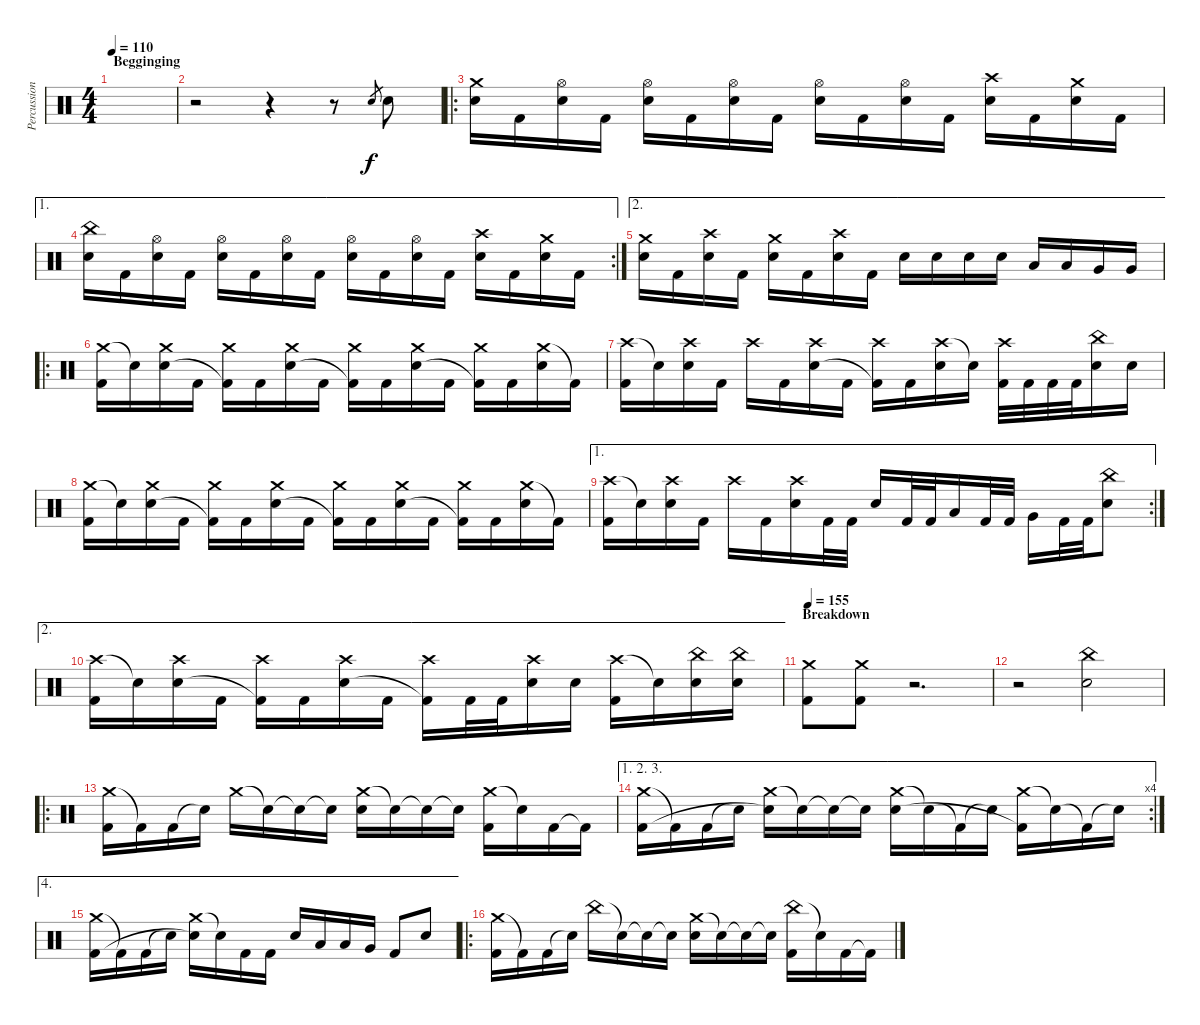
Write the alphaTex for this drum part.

\track ("Percussion" "Percussion") {instrument percussion}
\staff {score}
\articulation defaults
\ts (4 4)
\section ("" "Begginging")
\tempo 110
\clef neutral
\ks c
|
r.2 r.4 r.8 "Electric Snare (hit)".8{gr} "Electric Snare (hit)".8 |
\ro
("Crash medium (hit)" "Electric Snare (hit)").16 "Kick (hit) 2".16 ("Hi-Hat (open)" "Electric Snare (hit)").16 "Kick (hit) 2".16 ("Hi-Hat (open)" "Electric Snare (hit)").16 "Kick (hit) 2".16 ("Hi-Hat (open)" "Electric Snare (hit)").16 "Kick (hit) 2".16 ("Hi-Hat (open)" "Electric Snare (hit)").16 "Kick (hit) 2".16 ("Hi-Hat (open)" "Electric Snare (hit)").16 "Kick (hit) 2".16 ("Crash high (hit)" "Electric Snare (hit)").16 "Kick (hit) 2".16 ("Crash medium (hit)" "Electric Snare (hit)").16 "Kick (hit) 2".16 |
\ae 1
\rc 2
("China (hit)" "Electric Snare (hit)").16 "Kick (hit) 2".16 ("Hi-Hat (open)" "Electric Snare (hit)").16 "Kick (hit) 2".16 ("Hi-Hat (open)" "Electric Snare (hit)").16 "Kick (hit) 2".16 ("Hi-Hat (open)" "Electric Snare (hit)").16 "Kick (hit) 2".16 ("Hi-Hat (open)" "Electric Snare (hit)").16 "Kick (hit) 2".16 ("Hi-Hat (open)" "Electric Snare (hit)").16 "Kick (hit) 2".16 ("Crash high (hit)" "Electric Snare (hit)").16 "Kick (hit) 2".16 ("Crash medium (hit)" "Electric Snare (hit)").16 "Kick (hit) 2".16 |
\ae 2
("Crash medium (hit)" "Electric Snare (hit)").16 "Kick (hit) 2".16 ("Crash high (hit)" "Electric Snare (hit)").16 "Kick (hit) 2".16 ("Crash medium (hit)" "Electric Snare (hit)").16 "Kick (hit) 2".16 ("Crash high (hit)" "Electric Snare (hit)").16 "Kick (hit) 2".16 "Electric Snare (hit)".16 "Electric Snare (hit)".16 "Electric Snare (hit)".16 "Electric Snare (hit)".16 "Low Tom (hit)".16 "Low Tom (hit)".16 "Very Low Tom (hit)".16 "Very Low Tom (hit)".16 |
\ro
("Crash medium (hit)" "Kick (hit) 2").16 "Snare (hit)"{t}.16 ("Crash medium (hit)" "Electric Snare (hit)").16 "Kick (hit) 2".16 ("Crash medium (hit)" "Kick (hit) 2"{t}).16 "Kick (hit) 2".16 ("Crash medium (hit)" "Electric Snare (hit)").16 "Kick (hit) 2".16 ("Crash medium (hit)" "Kick (hit) 2"{t}).16 "Kick (hit) 2".16 ("Crash medium (hit)" "Electric Snare (hit)").16 "Kick (hit) 2".16 ("Crash medium (hit)" "Kick (hit) 2"{t}).16 "Kick (hit) 2".16 ("Crash medium (hit)" "Electric Snare (hit)").16 "Kick (hit) 2"{t}.16 |
("Crash high (hit)" "Kick (hit) 2").16 "Snare (hit)"{t}.16 ("Crash high (hit)" "Electric Snare (hit)").16 "Kick (hit) 2".16 "Crash high (hit)".16 "Kick (hit) 2".16 ("Crash high (hit)" "Electric Snare (hit)").16 "Kick (hit) 2".16 ("Crash high (hit)" "Kick (hit) 2"{t}).16 "Kick (hit) 2".16 ("Crash high (hit)" "Electric Snare (hit)").16 "Snare (hit)"{t}.16 ("Crash high (hit)" "Kick (hit) 2").32 "Kick (hit) 2".32 "Kick (hit) 2".32 "Kick (hit) 2".32 ("China (hit)" "Electric Snare (hit)").16 "Electric Snare (hit)".16 |
("Crash medium (hit)" "Kick (hit) 2").16 "Snare (hit)"{t}.16 ("Crash medium (hit)" "Electric Snare (hit)").16 "Kick (hit) 2".16 ("Crash medium (hit)" "Kick (hit) 2"{t}).16 "Kick (hit) 2".16 ("Crash medium (hit)" "Electric Snare (hit)").16 "Kick (hit) 2".16 ("Crash medium (hit)" "Kick (hit) 2"{t}).16 "Kick (hit) 2".16 ("Crash medium (hit)" "Electric Snare (hit)").16 "Kick (hit) 2".16 ("Crash medium (hit)" "Kick (hit) 2"{t}).16 "Kick (hit) 2".16 ("Crash medium (hit)" "Electric Snare (hit)").16 "Kick (hit) 2"{t}.16 |
\ae 1
\rc 2
("Crash high (hit)" "Kick (hit) 2").16 "Snare (hit)"{t}.16 ("Crash high (hit)" "Electric Snare (hit)").16 "Kick (hit) 2".16 "Crash high (hit)".16 "Kick (hit) 2".16 ("Crash high (hit)" "Electric Snare (hit)").16 "Kick (hit) 2".32 "Kick (hit) 2".32 "Electric Snare (hit)".16 "Kick (hit) 2".32 "Kick (hit) 2".32 "Low Tom (hit)".16 "Kick (hit) 2".32 "Kick (hit) 2".32 "Very Low Tom (hit)".16 "Kick (hit) 2".32 "Kick (hit) 2".32 ("China (hit)" "Electric Snare (hit)").8 |
\ae 2
("Crash high (hit)" "Kick (hit) 2").16 "Snare (hit)"{t}.16 ("Crash high (hit)" "Electric Snare (hit)").16 "Kick (hit) 2".16 ("Crash high (hit)" "Kick (hit) 2"{t}).16 "Kick (hit) 2".16 ("Crash high (hit)" "Electric Snare (hit)").16 "Kick (hit) 2".16 ("Crash high (hit)" "Kick (hit) 2"{t}).16 "Kick (hit) 2".32 "Kick (hit) 2".32 ("Crash high (hit)" "Electric Snare (hit)").16 "Electric Snare (hit)".16 ("Crash high (hit)" "Kick (hit) 2").16 "Snare (hit)"{t}.16 ("China (hit)" "Electric Snare (hit)").16 ("China (hit)" "Electric Snare (hit)").16 |
\section ("" "Breakdown")
\tempo 155
("Crash medium (hit)" "Kick (hit) 2").8 ("Crash medium (hit)" "Kick (hit) 2").8 r.2{d} |
r.2 ("China (hit)" "Electric Snare (hit)").2 |
\ro
("Crash medium (hit)" "Kick (hit) 2").16 "Kick (hit) 2"{t}.16 "Kick (hit) 2".16 "Snare (hit)"{t}.16 "Crash medium (hit)".16 "Snare (hit)"{t}.16 "Electric Snare (hit)"{t}.16 "Electric Snare (hit)"{t}.16 ("Crash medium (hit)" "Electric Snare (hit)").16 "Snare (hit)"{t}.16 "Snare (hit)"{t}.16 "Snare (hit)"{t}.16 ("Crash medium (hit)" "Kick (hit) 2").16 "Snare (hit)"{t}.16 "Kick (hit) 2".16 "Kick (hit) 2"{t}.16 |
\ae (1 2 3)
\rc 4
("Crash medium (hit)" "Kick (hit) 2").16 "Kick (hit) 2"{t}.16 "Kick (hit) 2".16 "Snare (hit)"{t}.16 ("Crash medium (hit)" "Snare (hit)"{t}).16 "Snare (hit)"{t}.16 "Snare (hit)"{t}.16 "Snare (hit)"{t}.16 ("Crash medium (hit)" "Electric Snare (hit)").16 "Snare (hit)"{t}.16 "Kick (hit) 2"{t}.16 "Snare (hit)"{t}.16 ("Crash medium (hit)" "Kick (hit) 2"{t}).16 "Snare (hit)"{t}.16 "Kick (hit) 2"{t}.16 "Snare (hit)"{t}.16 |
\ae 4
("Crash medium (hit)" "Kick (hit) 2").16 "Kick (hit) 2"{t}.16 "Kick (hit) 2".16 "Snare (hit)"{t}.16 ("Crash medium (hit)" "Snare (hit)"{t}).16 "Snare (hit)"{t}.16 "Kick (hit) 2".16 "Kick (hit) 2".16 "Electric Snare (hit)".16 "Low Tom (hit)".16 "Low Tom (hit)".16 "Very Low Tom (hit)".16 "Kick (hit) 2".8 "Electric Snare (hit)".8 |
\ro
("Crash medium (hit)" "Kick (hit) 2").16 "Kick (hit) 2"{t}.16 "Kick (hit) 2".16 "Snare (hit)"{t}.16 "China (hit)".16 "Snare (hit)"{t}.16 "Electric Snare (hit)"{t}.16 "Electric Snare (hit)"{t}.16 ("Crash medium (hit)" "Electric Snare (hit)").16 "Snare (hit)"{t}.16 "Snare (hit)"{t}.16 "Snare (hit)"{t}.16 ("China (hit)" "Kick (hit) 2").16 "Snare (hit)"{t}.16 "Kick (hit) 2".16 "Kick (hit) 2"{t}.16
